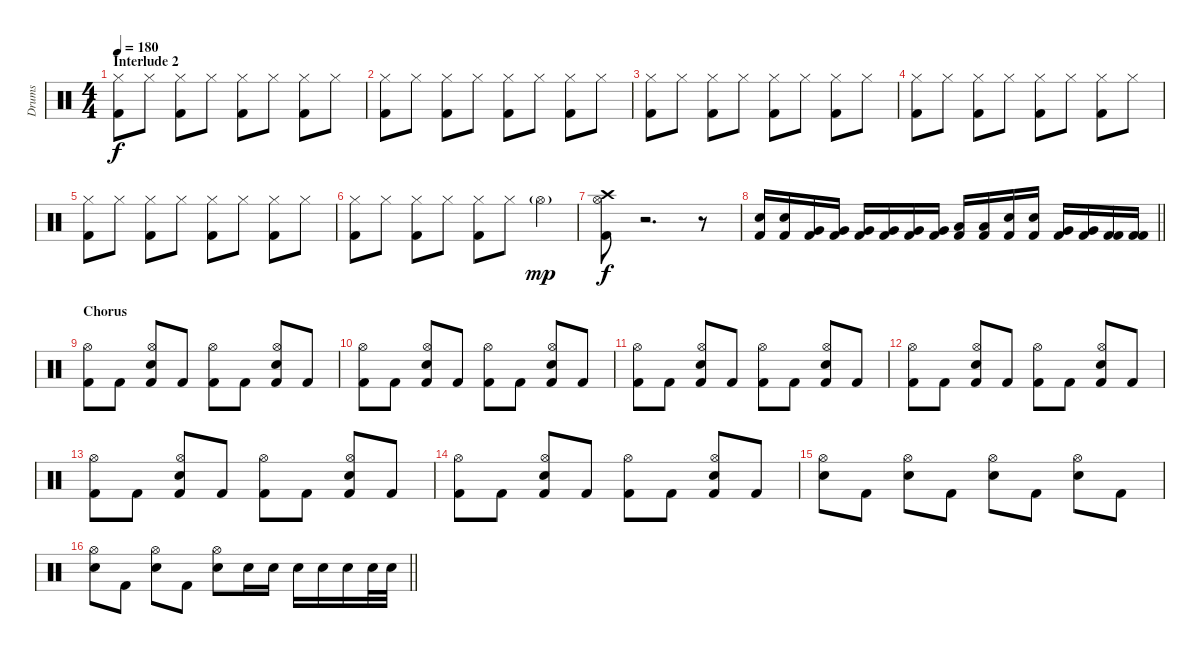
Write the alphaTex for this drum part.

\track ("Drums" "Drums") {instrument percussion}
\staff {score}
\articulation defaults
\ts (4 4)
\section ("" "Interlude 2")
\tempo 180
\clef neutral
\ks c
("Hi-Hat (closed)" "Kick (hit) 2").8{dy f} "Hi-Hat (closed)".8 ("Hi-Hat (closed)" "Kick (hit) 2").8 "Hi-Hat (closed)".8 ("Hi-Hat (closed)" "Kick (hit) 2").8 "Hi-Hat (closed)".8 ("Hi-Hat (closed)" "Kick (hit) 2").8 "Hi-Hat (closed)".8 |
("Hi-Hat (closed)" "Kick (hit) 2").8 "Hi-Hat (closed)".8 ("Hi-Hat (closed)" "Kick (hit) 2").8 "Hi-Hat (closed)".8 ("Hi-Hat (closed)" "Kick (hit) 2").8 "Hi-Hat (closed)".8 ("Hi-Hat (closed)" "Kick (hit) 2").8 "Hi-Hat (closed)".8 |
("Hi-Hat (closed)" "Kick (hit) 2").8 "Hi-Hat (closed)".8 ("Hi-Hat (closed)" "Kick (hit) 2").8 "Hi-Hat (closed)".8 ("Hi-Hat (closed)" "Kick (hit) 2").8 "Hi-Hat (closed)".8 ("Hi-Hat (closed)" "Kick (hit) 2").8 "Hi-Hat (closed)".8 |
("Hi-Hat (closed)" "Kick (hit) 2").8 "Hi-Hat (closed)".8 ("Hi-Hat (closed)" "Kick (hit) 2").8 "Hi-Hat (closed)".8 ("Hi-Hat (closed)" "Kick (hit) 2").8 "Hi-Hat (closed)".8 ("Hi-Hat (closed)" "Kick (hit) 2").8 "Hi-Hat (closed)".8 |
("Hi-Hat (closed)" "Kick (hit) 2").8 "Hi-Hat (closed)".8 ("Hi-Hat (closed)" "Kick (hit) 2").8 "Hi-Hat (closed)".8 ("Hi-Hat (closed)" "Kick (hit) 2").8 "Hi-Hat (closed)".8 ("Hi-Hat (closed)" "Kick (hit) 2").8 "Hi-Hat (closed)".8 |
("Hi-Hat (closed)" "Kick (hit) 2").8 "Hi-Hat (closed)".8 ("Hi-Hat (closed)" "Kick (hit) 2").8 "Hi-Hat (closed)".8 ("Hi-Hat (closed)" "Kick (hit) 2").8 "Hi-Hat (closed)".8 "Hi-Hat (open)"{g}.4{dy mp} |
("Crash high (hit)" "Hi-Hat (open)" "Kick (hit) 2").8{dy f} r.2{d} r.8 |
\barLineRight lightlight
("Electric Snare (hit)" "Kick (hit) 2").16 ("Electric Snare (hit)" "Kick (hit) 2").16 ("Very Low Tom (hit)" "Kick (hit) 2").16 ("Very Low Tom (hit)" "Kick (hit) 2").16 ("Very Low Tom (hit)" "Kick (hit) 2").16 ("Very Low Tom (hit)" "Kick (hit) 2").16 ("Very Low Tom (hit)" "Kick (hit) 2").16 ("Very Low Tom (hit)" "Kick (hit) 2").16 ("Low Tom (hit)" "Kick (hit) 2").16 ("Low Tom (hit)" "Kick (hit) 2").16 ("Electric Snare (hit)" "Kick (hit) 2").16 ("Electric Snare (hit)" "Kick (hit) 2").16 ("Very Low Tom (hit)" "Kick (hit) 2").16 ("Very Low Tom (hit)" "Kick (hit) 2").16 ("Kick (hit) 2" "Kick (hit) 2").16 ("Kick (hit) 2" "Kick (hit) 2").16 |
\section ("" "Chorus")
("Hi-Hat (open)" "Kick (hit) 2").8 "Kick (hit) 2".8 ("Hi-Hat (open)" "Electric Snare (hit)" "Kick (hit) 2").8 "Kick (hit) 2".8 ("Hi-Hat (open)" "Kick (hit) 2").8 "Kick (hit) 2".8 ("Hi-Hat (open)" "Electric Snare (hit)" "Kick (hit) 2").8 "Kick (hit) 2".8 |
("Hi-Hat (open)" "Kick (hit) 2").8 "Kick (hit) 2".8 ("Hi-Hat (open)" "Electric Snare (hit)" "Kick (hit) 2").8 "Kick (hit) 2".8 ("Hi-Hat (open)" "Kick (hit) 2").8 "Kick (hit) 2".8 ("Hi-Hat (open)" "Electric Snare (hit)" "Kick (hit) 2").8 "Kick (hit) 2".8 |
("Hi-Hat (open)" "Kick (hit) 2").8 "Kick (hit) 2".8 ("Hi-Hat (open)" "Electric Snare (hit)" "Kick (hit) 2").8 "Kick (hit) 2".8 ("Hi-Hat (open)" "Kick (hit) 2").8 "Kick (hit) 2".8 ("Hi-Hat (open)" "Electric Snare (hit)" "Kick (hit) 2").8 "Kick (hit) 2".8 |
("Hi-Hat (open)" "Kick (hit) 2").8 "Kick (hit) 2".8 ("Hi-Hat (open)" "Electric Snare (hit)" "Kick (hit) 2").8 "Kick (hit) 2".8 ("Hi-Hat (open)" "Kick (hit) 2").8 "Kick (hit) 2".8 ("Hi-Hat (open)" "Electric Snare (hit)" "Kick (hit) 2").8 "Kick (hit) 2".8 |
("Hi-Hat (open)" "Kick (hit) 2").8 "Kick (hit) 2".8 ("Hi-Hat (open)" "Electric Snare (hit)" "Kick (hit) 2").8 "Kick (hit) 2".8 ("Hi-Hat (open)" "Kick (hit) 2").8 "Kick (hit) 2".8 ("Hi-Hat (open)" "Electric Snare (hit)" "Kick (hit) 2").8 "Kick (hit) 2".8 |
("Hi-Hat (open)" "Kick (hit) 2").8 "Kick (hit) 2".8 ("Hi-Hat (open)" "Electric Snare (hit)" "Kick (hit) 2").8 "Kick (hit) 2".8 ("Hi-Hat (open)" "Kick (hit) 2").8 "Kick (hit) 2".8 ("Hi-Hat (open)" "Electric Snare (hit)" "Kick (hit) 2").8 "Kick (hit) 2".8 |
("Hi-Hat (open)" "Electric Snare (hit)").8 "Kick (hit) 2".8 ("Hi-Hat (open)" "Electric Snare (hit)").8 "Kick (hit) 2".8 ("Hi-Hat (open)" "Electric Snare (hit)").8 "Kick (hit) 2".8 ("Hi-Hat (open)" "Electric Snare (hit)").8 "Kick (hit) 2".8 |
\barLineRight lightlight
("Hi-Hat (open)" "Electric Snare (hit)").8 "Kick (hit) 2".8 ("Hi-Hat (open)" "Electric Snare (hit)").8 "Kick (hit) 2".8 ("Hi-Hat (open)" "Electric Snare (hit)").8 "Electric Snare (hit)".16 "Electric Snare (hit)".16 "Electric Snare (hit)".16 "Electric Snare (hit)".16 "Electric Snare (hit)".16 "Electric Snare (hit)".32 "Electric Snare (hit)".32
